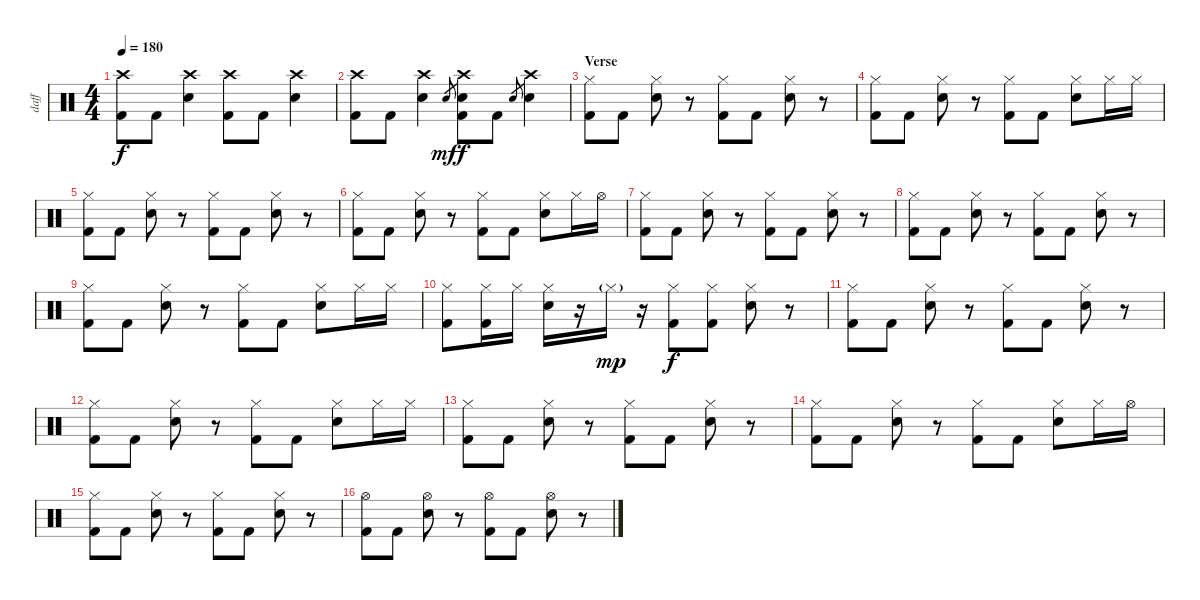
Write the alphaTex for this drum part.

\track ("daff" "daff") {instrument percussion}
\staff {score}
\articulation defaults
\ts (4 4)
\tempo 180
\clef neutral
\ks c
("Crash high (hit)" "Kick (hit) 2").8{dy f} "Kick (hit) 2".8 ("Crash high (hit)" "Electric Snare (hit)").4 ("Crash high (hit)" "Kick (hit) 2").8 "Kick (hit) 2".8 ("Crash high (hit)" "Electric Snare (hit)").4 |
("Crash high (hit)" "Kick (hit) 2").8 "Kick (hit) 2".8 ("Crash high (hit)" "Electric Snare (hit)").4 "Electric Snare (hit)".8{gr dy mf} ("Crash high (hit)" "Electric Snare (hit)" "Kick (hit) 2").8{dy f} "Kick (hit) 2".8 "Electric Snare (hit)".8{gr} ("Crash high (hit)" "Electric Snare (hit)").4 |
\section ("" "Verse")
("Hi-Hat (closed)" "Kick (hit) 2").8 "Kick (hit) 2".8 ("Hi-Hat (closed)" "Snare (hit) 2").8 r.8 ("Hi-Hat (closed)" "Kick (hit) 2").8 "Kick (hit) 2".8 ("Hi-Hat (closed)" "Snare (hit) 2").8 r.8 |
("Hi-Hat (closed)" "Kick (hit) 2").8 "Kick (hit) 2".8 ("Hi-Hat (closed)" "Snare (hit) 2").8 r.8 ("Hi-Hat (closed)" "Kick (hit) 2").8 "Kick (hit) 2".8 ("Hi-Hat (closed)" "Snare (hit) 2").8 "Hi-Hat (closed)".16 "Hi-Hat (closed)".16 |
("Hi-Hat (closed)" "Kick (hit) 2").8 "Kick (hit) 2".8 ("Hi-Hat (closed)" "Snare (hit) 2").8 r.8 ("Hi-Hat (closed)" "Kick (hit) 2").8 "Kick (hit) 2".8 ("Hi-Hat (closed)" "Snare (hit) 2").8 r.8 |
("Hi-Hat (closed)" "Kick (hit) 2").8 "Kick (hit) 2".8 ("Hi-Hat (closed)" "Snare (hit) 2").8 r.8 ("Hi-Hat (closed)" "Kick (hit) 2").8 "Kick (hit) 2".8 ("Hi-Hat (closed)" "Snare (hit) 2").8 "Hi-Hat (closed)".16 "Hi-Hat (open)".16 |
("Hi-Hat (closed)" "Kick (hit) 2").8 "Kick (hit) 2".8 ("Hi-Hat (closed)" "Snare (hit) 2").8 r.8 ("Hi-Hat (closed)" "Kick (hit) 2").8 "Kick (hit) 2".8 ("Hi-Hat (closed)" "Snare (hit) 2").8 r.8 |
("Hi-Hat (closed)" "Kick (hit) 2").8 "Kick (hit) 2".8 ("Hi-Hat (closed)" "Snare (hit) 2").8 r.8 ("Hi-Hat (closed)" "Kick (hit) 2").8 "Kick (hit) 2".8 ("Hi-Hat (closed)" "Snare (hit) 2").8 r.8 |
("Hi-Hat (closed)" "Kick (hit) 2").8 "Kick (hit) 2".8 ("Hi-Hat (closed)" "Snare (hit) 2").8 r.8 ("Hi-Hat (closed)" "Kick (hit) 2").8 "Kick (hit) 2".8 ("Hi-Hat (closed)" "Snare (hit) 2").8 "Hi-Hat (closed)".16 "Hi-Hat (closed)".16 |
("Hi-Hat (closed)" "Kick (hit) 2").8 ("Hi-Hat (closed)" "Kick (hit) 2").16 "Hi-Hat (closed)".16 ("Hi-Hat (closed)" "Snare (hit) 2").16 r.16 "Hi-Hat (closed)"{g}.16{dy mp} r.16 ("Hi-Hat (closed)" "Kick (hit) 2").8{dy f} ("Hi-Hat (closed)" "Kick (hit) 2").8 ("Hi-Hat (closed)" "Snare (hit) 2").8 r.8 |
("Hi-Hat (closed)" "Kick (hit) 2").8 "Kick (hit) 2".8 ("Hi-Hat (closed)" "Snare (hit) 2").8 r.8 ("Hi-Hat (closed)" "Kick (hit) 2").8 "Kick (hit) 2".8 ("Hi-Hat (closed)" "Snare (hit) 2").8 r.8 |
("Hi-Hat (closed)" "Kick (hit) 2").8 "Kick (hit) 2".8 ("Hi-Hat (closed)" "Snare (hit) 2").8 r.8 ("Hi-Hat (closed)" "Kick (hit) 2").8 "Kick (hit) 2".8 ("Hi-Hat (closed)" "Snare (hit) 2").8 "Hi-Hat (closed)".16 "Hi-Hat (closed)".16 |
("Hi-Hat (closed)" "Kick (hit) 2").8 "Kick (hit) 2".8 ("Hi-Hat (closed)" "Snare (hit) 2").8 r.8 ("Hi-Hat (closed)" "Kick (hit) 2").8 "Kick (hit) 2".8 ("Hi-Hat (closed)" "Snare (hit) 2").8 r.8 |
("Hi-Hat (closed)" "Kick (hit) 2").8 "Kick (hit) 2".8 ("Hi-Hat (closed)" "Snare (hit) 2").8 r.8 ("Hi-Hat (closed)" "Kick (hit) 2").8 "Kick (hit) 2".8 ("Hi-Hat (closed)" "Snare (hit) 2").8 "Hi-Hat (closed)".16 "Hi-Hat (open)".16 |
("Hi-Hat (closed)" "Kick (hit) 2").8 "Kick (hit) 2".8 ("Hi-Hat (closed)" "Snare (hit) 2").8 r.8 ("Hi-Hat (closed)" "Kick (hit) 2").8 "Kick (hit) 2".8 ("Hi-Hat (closed)" "Snare (hit) 2").8 r.8 |
("Hi-Hat (open)" "Kick (hit) 2").8 "Kick (hit) 2".8 ("Hi-Hat (open)" "Snare (hit) 2").8 r.8 ("Hi-Hat (open)" "Kick (hit) 2").8 "Kick (hit) 2".8 ("Hi-Hat (open)" "Snare (hit) 2").8 r.8
